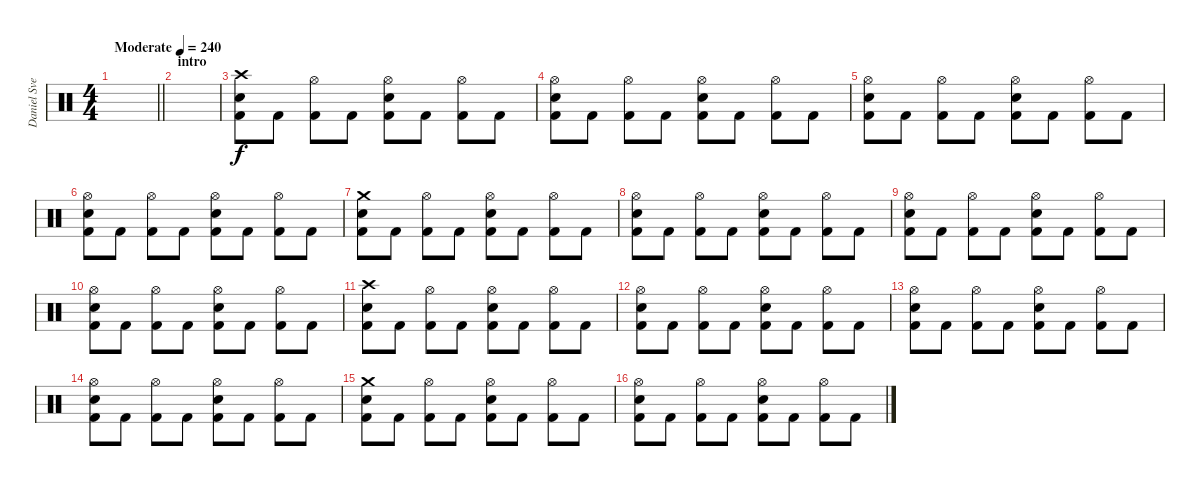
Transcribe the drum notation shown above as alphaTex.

\track ("Daniel Svensson" "Daniel Sve") {instrument percussion}
\staff {score}
\articulation defaults
\ts (4 4)
\tempo (240 "Moderate")
\clef neutral
\barLineRight lightlight
\ks c
|
\section ("" "intro")
|
("Crash high (hit)" "Electric Snare (hit)" "Kick (hit) 2").8 "Kick (hit) 2".8 ("Hi-Hat (open)" "Kick (hit) 2").8 "Kick (hit) 2".8 ("Hi-Hat (open)" "Electric Snare (hit)" "Kick (hit) 2").8 "Kick (hit) 2".8 ("Hi-Hat (open)" "Kick (hit) 2").8 "Kick (hit) 2".8 |
("Hi-Hat (open)" "Electric Snare (hit)" "Kick (hit) 2").8 "Kick (hit) 2".8 ("Hi-Hat (open)" "Kick (hit) 2").8 "Kick (hit) 2".8 ("Hi-Hat (open)" "Electric Snare (hit)" "Kick (hit) 2").8 "Kick (hit) 2".8 ("Hi-Hat (open)" "Kick (hit) 2").8 "Kick (hit) 2".8 |
("Hi-Hat (open)" "Electric Snare (hit)" "Kick (hit) 2").8 "Kick (hit) 2".8 ("Hi-Hat (open)" "Kick (hit) 2").8 "Kick (hit) 2".8 ("Hi-Hat (open)" "Electric Snare (hit)" "Kick (hit) 2").8 "Kick (hit) 2".8 ("Hi-Hat (open)" "Kick (hit) 2").8 "Kick (hit) 2".8 |
("Hi-Hat (open)" "Electric Snare (hit)" "Kick (hit) 2").8 "Kick (hit) 2".8 ("Hi-Hat (open)" "Kick (hit) 2").8 "Kick (hit) 2".8 ("Hi-Hat (open)" "Electric Snare (hit)" "Kick (hit) 2").8 "Kick (hit) 2".8 ("Hi-Hat (open)" "Kick (hit) 2").8 "Kick (hit) 2".8 |
("Crash medium (hit)" "Electric Snare (hit)" "Kick (hit) 2").8 "Kick (hit) 2".8 ("Hi-Hat (open)" "Kick (hit) 2").8 "Kick (hit) 2".8 ("Hi-Hat (open)" "Electric Snare (hit)" "Kick (hit) 2").8 "Kick (hit) 2".8 ("Hi-Hat (open)" "Kick (hit) 2").8 "Kick (hit) 2".8 |
("Hi-Hat (open)" "Electric Snare (hit)" "Kick (hit) 2").8 "Kick (hit) 2".8 ("Hi-Hat (open)" "Kick (hit) 2").8 "Kick (hit) 2".8 ("Hi-Hat (open)" "Electric Snare (hit)" "Kick (hit) 2").8 "Kick (hit) 2".8 ("Hi-Hat (open)" "Kick (hit) 2").8 "Kick (hit) 2".8 |
("Hi-Hat (open)" "Electric Snare (hit)" "Kick (hit) 2").8 "Kick (hit) 2".8 ("Hi-Hat (open)" "Kick (hit) 2").8 "Kick (hit) 2".8 ("Hi-Hat (open)" "Electric Snare (hit)" "Kick (hit) 2").8 "Kick (hit) 2".8 ("Hi-Hat (open)" "Kick (hit) 2").8 "Kick (hit) 2".8 |
("Hi-Hat (open)" "Electric Snare (hit)" "Kick (hit) 2").8 "Kick (hit) 2".8 ("Hi-Hat (open)" "Kick (hit) 2").8 "Kick (hit) 2".8 ("Hi-Hat (open)" "Electric Snare (hit)" "Kick (hit) 2").8 "Kick (hit) 2".8 ("Hi-Hat (open)" "Kick (hit) 2").8 "Kick (hit) 2".8 |
("Crash high (hit)" "Electric Snare (hit)" "Kick (hit) 2").8 "Kick (hit) 2".8 ("Hi-Hat (open)" "Kick (hit) 2").8 "Kick (hit) 2".8 ("Hi-Hat (open)" "Electric Snare (hit)" "Kick (hit) 2").8 "Kick (hit) 2".8 ("Hi-Hat (open)" "Kick (hit) 2").8 "Kick (hit) 2".8 |
("Hi-Hat (open)" "Electric Snare (hit)" "Kick (hit) 2").8 "Kick (hit) 2".8 ("Hi-Hat (open)" "Kick (hit) 2").8 "Kick (hit) 2".8 ("Hi-Hat (open)" "Electric Snare (hit)" "Kick (hit) 2").8 "Kick (hit) 2".8 ("Hi-Hat (open)" "Kick (hit) 2").8 "Kick (hit) 2".8 |
("Hi-Hat (open)" "Electric Snare (hit)" "Kick (hit) 2").8 "Kick (hit) 2".8 ("Hi-Hat (open)" "Kick (hit) 2").8 "Kick (hit) 2".8 ("Hi-Hat (open)" "Electric Snare (hit)" "Kick (hit) 2").8 "Kick (hit) 2".8 ("Hi-Hat (open)" "Kick (hit) 2").8 "Kick (hit) 2".8 |
("Hi-Hat (open)" "Electric Snare (hit)" "Kick (hit) 2").8 "Kick (hit) 2".8 ("Hi-Hat (open)" "Kick (hit) 2").8 "Kick (hit) 2".8 ("Hi-Hat (open)" "Electric Snare (hit)" "Kick (hit) 2").8 "Kick (hit) 2".8 ("Hi-Hat (open)" "Kick (hit) 2").8 "Kick (hit) 2".8 |
("Crash medium (hit)" "Electric Snare (hit)" "Kick (hit) 2").8 "Kick (hit) 2".8 ("Hi-Hat (open)" "Kick (hit) 2").8 "Kick (hit) 2".8 ("Hi-Hat (open)" "Electric Snare (hit)" "Kick (hit) 2").8 "Kick (hit) 2".8 ("Hi-Hat (open)" "Kick (hit) 2").8 "Kick (hit) 2".8 |
("Hi-Hat (open)" "Electric Snare (hit)" "Kick (hit) 2").8 "Kick (hit) 2".8 ("Hi-Hat (open)" "Kick (hit) 2").8 "Kick (hit) 2".8 ("Hi-Hat (open)" "Electric Snare (hit)" "Kick (hit) 2").8 "Kick (hit) 2".8 ("Hi-Hat (open)" "Kick (hit) 2").8 "Kick (hit) 2".8
